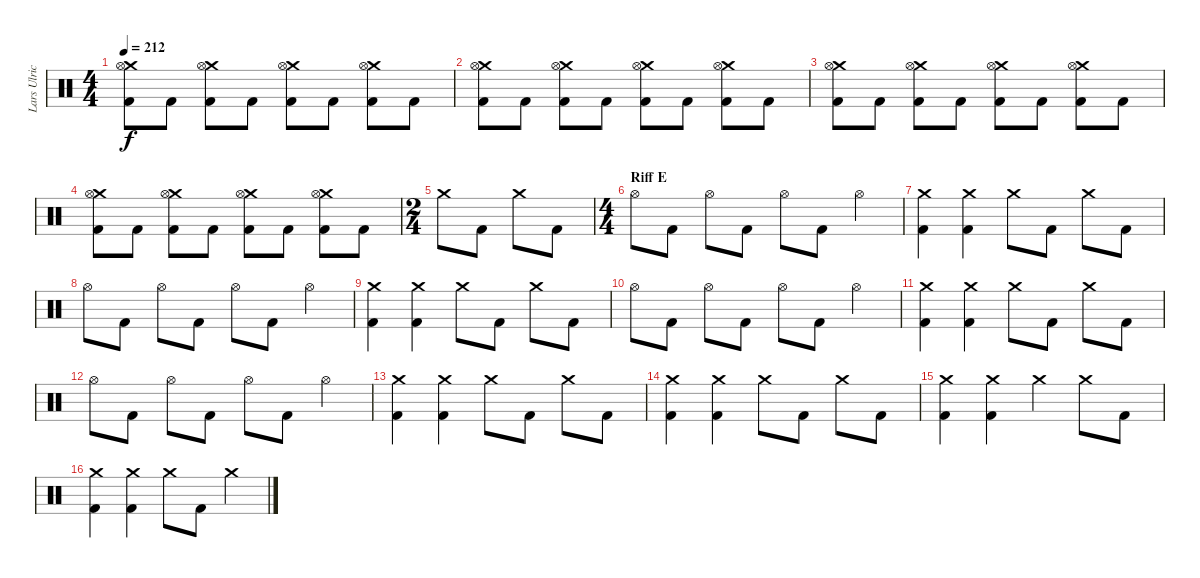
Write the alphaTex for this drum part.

\track ("Lars Ulrich" "Lars Ulric") {instrument percussion}
\staff {score}
\articulation defaults
\ts (4 4)
\tempo 212
\clef neutral
\ks c
("Crash medium (hit)" "Hi-Hat (open)" "Kick (hit) 2").8{dy f} "Kick (hit) 2".8 ("Crash medium (hit)" "Hi-Hat (open)" "Kick (hit) 2").8 "Kick (hit) 2".8 ("Crash medium (hit)" "Hi-Hat (open)" "Kick (hit) 2").8 "Kick (hit) 2".8 ("Crash medium (hit)" "Hi-Hat (open)" "Kick (hit) 2").8 "Kick (hit) 2".8 |
("Crash medium (hit)" "Hi-Hat (open)" "Kick (hit) 2").8 "Kick (hit) 2".8 ("Crash medium (hit)" "Hi-Hat (open)" "Kick (hit) 2").8 "Kick (hit) 2".8 ("Crash medium (hit)" "Hi-Hat (open)" "Kick (hit) 2").8 "Kick (hit) 2".8 ("Crash medium (hit)" "Hi-Hat (open)" "Kick (hit) 2").8 "Kick (hit) 2".8 |
("Crash medium (hit)" "Hi-Hat (open)" "Kick (hit) 2").8 "Kick (hit) 2".8 ("Crash medium (hit)" "Hi-Hat (open)" "Kick (hit) 2").8 "Kick (hit) 2".8 ("Crash medium (hit)" "Hi-Hat (open)" "Kick (hit) 2").8 "Kick (hit) 2".8 ("Crash medium (hit)" "Hi-Hat (open)" "Kick (hit) 2").8 "Kick (hit) 2".8 |
("Crash medium (hit)" "Hi-Hat (open)" "Kick (hit) 2").8 "Kick (hit) 2".8 ("Crash medium (hit)" "Hi-Hat (open)" "Kick (hit) 2").8 "Kick (hit) 2".8 ("Crash medium (hit)" "Hi-Hat (open)" "Kick (hit) 2").8 "Kick (hit) 2".8 ("Crash medium (hit)" "Hi-Hat (open)" "Kick (hit) 2").8 "Kick (hit) 2".8 |
\ts (2 4)
"Crash medium (hit)".8 "Kick (hit) 2".8 "Crash medium (hit)".8 "Kick (hit) 2".8 |
\ts (4 4)
\section ("" "Riff E")
"Hi-Hat (open)".8 "Kick (hit) 2".8 "Hi-Hat (open)".8 "Kick (hit) 2".8 "Hi-Hat (open)".8 "Kick (hit) 2".8 "Hi-Hat (open)".4 |
("Crash medium (hit)" "Kick (hit) 2").4 ("Crash medium (hit)" "Kick (hit) 2").4 "Crash medium (hit)".8 "Kick (hit) 2".8 "Crash medium (hit)".8 "Kick (hit) 2".8 |
"Hi-Hat (open)".8 "Kick (hit) 2".8 "Hi-Hat (open)".8 "Kick (hit) 2".8 "Hi-Hat (open)".8 "Kick (hit) 2".8 "Hi-Hat (open)".4 |
("Crash medium (hit)" "Kick (hit) 2").4 ("Crash medium (hit)" "Kick (hit) 2").4 "Crash medium (hit)".8 "Kick (hit) 2".8 "Crash medium (hit)".8 "Kick (hit) 2".8 |
"Hi-Hat (open)".8 "Kick (hit) 2".8 "Hi-Hat (open)".8 "Kick (hit) 2".8 "Hi-Hat (open)".8 "Kick (hit) 2".8 "Hi-Hat (open)".4 |
("Crash medium (hit)" "Kick (hit) 2").4 ("Crash medium (hit)" "Kick (hit) 2").4 "Crash medium (hit)".8 "Kick (hit) 2".8 "Crash medium (hit)".8 "Kick (hit) 2".8 |
"Hi-Hat (open)".8 "Kick (hit) 2".8 "Hi-Hat (open)".8 "Kick (hit) 2".8 "Hi-Hat (open)".8 "Kick (hit) 2".8 "Hi-Hat (open)".4 |
("Crash medium (hit)" "Kick (hit) 2").4 ("Crash medium (hit)" "Kick (hit) 2").4 "Crash medium (hit)".8 "Kick (hit) 2".8 "Crash medium (hit)".8 "Kick (hit) 2".8 |
("Crash medium (hit)" "Kick (hit) 2").4 ("Crash medium (hit)" "Kick (hit) 2").4 "Crash medium (hit)".8 "Kick (hit) 2".8 "Crash medium (hit)".8 "Kick (hit) 2".8 |
("Crash medium (hit)" "Kick (hit) 2").4 ("Crash medium (hit)" "Kick (hit) 2").4 "Crash medium (hit)".4 "Crash medium (hit)".8 "Kick (hit) 2".8 |
("Crash medium (hit)" "Kick (hit) 2").4 ("Crash medium (hit)" "Kick (hit) 2").4 "Crash medium (hit)".8 "Kick (hit) 2".8 "Crash medium (hit)".4
